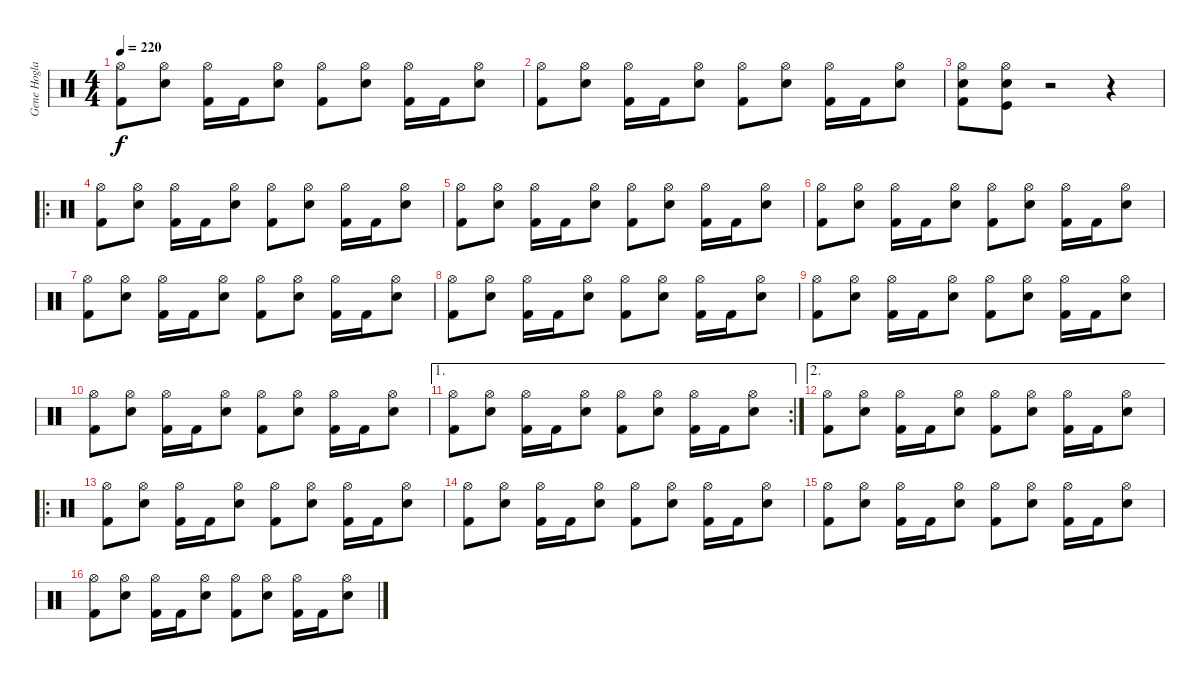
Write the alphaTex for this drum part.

\track ("Gene Hoglan" "Gene Hogla") {instrument percussion}
\staff {score}
\articulation defaults
\ts (4 4)
\tempo 220
\clef neutral
\ks c
("Hi-Hat (open)" "Kick (hit) 2").8{dy f} ("Hi-Hat (open)" "Electric Snare (hit)").8 ("Hi-Hat (open)" "Kick (hit) 2").16 "Kick (hit) 2".16 ("Hi-Hat (open)" "Electric Snare (hit)").8 ("Hi-Hat (open)" "Kick (hit) 2").8 ("Hi-Hat (open)" "Electric Snare (hit)").8 ("Hi-Hat (open)" "Kick (hit) 2").16 "Kick (hit) 2".16 ("Hi-Hat (open)" "Electric Snare (hit)").8 |
("Hi-Hat (open)" "Kick (hit) 2").8 ("Hi-Hat (open)" "Electric Snare (hit)").8 ("Hi-Hat (open)" "Kick (hit) 2").16 "Kick (hit) 2".16 ("Hi-Hat (open)" "Electric Snare (hit)").8 ("Hi-Hat (open)" "Kick (hit) 2").8 ("Hi-Hat (open)" "Electric Snare (hit)").8 ("Hi-Hat (open)" "Kick (hit) 2").16 "Kick (hit) 2".16 ("Hi-Hat (open)" "Electric Snare (hit)").8 |
("Hi-Hat (open)" "Electric Snare (hit)" "Kick (hit) 2").8 ("Hi-Hat (open)" "Electric Snare (hit)" "Kick (hit)").8 r.2 r.4 |
\ro
("Hi-Hat (open)" "Kick (hit) 2").8 ("Hi-Hat (open)" "Electric Snare (hit)").8 ("Hi-Hat (open)" "Kick (hit) 2").16 "Kick (hit) 2".16 ("Hi-Hat (open)" "Electric Snare (hit)").8 ("Hi-Hat (open)" "Kick (hit) 2").8 ("Hi-Hat (open)" "Electric Snare (hit)").8 ("Hi-Hat (open)" "Kick (hit) 2").16 "Kick (hit) 2".16 ("Hi-Hat (open)" "Electric Snare (hit)").8 |
("Hi-Hat (open)" "Kick (hit) 2").8 ("Hi-Hat (open)" "Electric Snare (hit)").8 ("Hi-Hat (open)" "Kick (hit) 2").16 "Kick (hit) 2".16 ("Hi-Hat (open)" "Electric Snare (hit)").8 ("Hi-Hat (open)" "Kick (hit) 2").8 ("Hi-Hat (open)" "Electric Snare (hit)").8 ("Hi-Hat (open)" "Kick (hit) 2").16 "Kick (hit) 2".16 ("Hi-Hat (open)" "Electric Snare (hit)").8 |
("Hi-Hat (open)" "Kick (hit) 2").8 ("Hi-Hat (open)" "Electric Snare (hit)").8 ("Hi-Hat (open)" "Kick (hit) 2").16 "Kick (hit) 2".16 ("Hi-Hat (open)" "Electric Snare (hit)").8 ("Hi-Hat (open)" "Kick (hit) 2").8 ("Hi-Hat (open)" "Electric Snare (hit)").8 ("Hi-Hat (open)" "Kick (hit) 2").16 "Kick (hit) 2".16 ("Hi-Hat (open)" "Electric Snare (hit)").8 |
("Hi-Hat (open)" "Kick (hit) 2").8 ("Hi-Hat (open)" "Electric Snare (hit)").8 ("Hi-Hat (open)" "Kick (hit) 2").16 "Kick (hit) 2".16 ("Hi-Hat (open)" "Electric Snare (hit)").8 ("Hi-Hat (open)" "Kick (hit) 2").8 ("Hi-Hat (open)" "Electric Snare (hit)").8 ("Hi-Hat (open)" "Kick (hit) 2").16 "Kick (hit) 2".16 ("Hi-Hat (open)" "Electric Snare (hit)").8 |
("Hi-Hat (open)" "Kick (hit) 2").8 ("Hi-Hat (open)" "Electric Snare (hit)").8 ("Hi-Hat (open)" "Kick (hit) 2").16 "Kick (hit) 2".16 ("Hi-Hat (open)" "Electric Snare (hit)").8 ("Hi-Hat (open)" "Kick (hit) 2").8 ("Hi-Hat (open)" "Electric Snare (hit)").8 ("Hi-Hat (open)" "Kick (hit) 2").16 "Kick (hit) 2".16 ("Hi-Hat (open)" "Electric Snare (hit)").8 |
("Hi-Hat (open)" "Kick (hit) 2").8 ("Hi-Hat (open)" "Electric Snare (hit)").8 ("Hi-Hat (open)" "Kick (hit) 2").16 "Kick (hit) 2".16 ("Hi-Hat (open)" "Electric Snare (hit)").8 ("Hi-Hat (open)" "Kick (hit) 2").8 ("Hi-Hat (open)" "Electric Snare (hit)").8 ("Hi-Hat (open)" "Kick (hit) 2").16 "Kick (hit) 2".16 ("Hi-Hat (open)" "Electric Snare (hit)").8 |
("Hi-Hat (open)" "Kick (hit) 2").8 ("Hi-Hat (open)" "Electric Snare (hit)").8 ("Hi-Hat (open)" "Kick (hit) 2").16 "Kick (hit) 2".16 ("Hi-Hat (open)" "Electric Snare (hit)").8 ("Hi-Hat (open)" "Kick (hit) 2").8 ("Hi-Hat (open)" "Electric Snare (hit)").8 ("Hi-Hat (open)" "Kick (hit) 2").16 "Kick (hit) 2".16 ("Hi-Hat (open)" "Electric Snare (hit)").8 |
\ae 1
\rc 2
("Hi-Hat (open)" "Kick (hit) 2").8 ("Hi-Hat (open)" "Electric Snare (hit)").8 ("Hi-Hat (open)" "Kick (hit) 2").16 "Kick (hit) 2".16 ("Hi-Hat (open)" "Electric Snare (hit)").8 ("Hi-Hat (open)" "Kick (hit) 2").8 ("Hi-Hat (open)" "Electric Snare (hit)").8 ("Hi-Hat (open)" "Kick (hit) 2").16 "Kick (hit) 2".16 ("Hi-Hat (open)" "Electric Snare (hit)").8 |
\ae 2
("Hi-Hat (open)" "Kick (hit) 2").8 ("Hi-Hat (open)" "Electric Snare (hit)").8 ("Hi-Hat (open)" "Kick (hit) 2").16 "Kick (hit) 2".16 ("Hi-Hat (open)" "Electric Snare (hit)").8 ("Hi-Hat (open)" "Kick (hit) 2").8 ("Hi-Hat (open)" "Electric Snare (hit)").8 ("Hi-Hat (open)" "Kick (hit) 2").16 "Kick (hit) 2".16 ("Hi-Hat (open)" "Electric Snare (hit)").8 |
\ro
("Hi-Hat (open)" "Kick (hit) 2").8 ("Hi-Hat (open)" "Electric Snare (hit)").8 ("Hi-Hat (open)" "Kick (hit) 2").16 "Kick (hit) 2".16 ("Hi-Hat (open)" "Electric Snare (hit)").8 ("Hi-Hat (open)" "Kick (hit) 2").8 ("Hi-Hat (open)" "Electric Snare (hit)").8 ("Hi-Hat (open)" "Kick (hit) 2").16 "Kick (hit) 2".16 ("Hi-Hat (open)" "Electric Snare (hit)").8 |
("Hi-Hat (open)" "Kick (hit) 2").8 ("Hi-Hat (open)" "Electric Snare (hit)").8 ("Hi-Hat (open)" "Kick (hit) 2").16 "Kick (hit) 2".16 ("Hi-Hat (open)" "Electric Snare (hit)").8 ("Hi-Hat (open)" "Kick (hit) 2").8 ("Hi-Hat (open)" "Electric Snare (hit)").8 ("Hi-Hat (open)" "Kick (hit) 2").16 "Kick (hit) 2".16 ("Hi-Hat (open)" "Electric Snare (hit)").8 |
("Hi-Hat (open)" "Kick (hit) 2").8 ("Hi-Hat (open)" "Electric Snare (hit)").8 ("Hi-Hat (open)" "Kick (hit) 2").16 "Kick (hit) 2".16 ("Hi-Hat (open)" "Electric Snare (hit)").8 ("Hi-Hat (open)" "Kick (hit) 2").8 ("Hi-Hat (open)" "Electric Snare (hit)").8 ("Hi-Hat (open)" "Kick (hit) 2").16 "Kick (hit) 2".16 ("Hi-Hat (open)" "Electric Snare (hit)").8 |
("Hi-Hat (open)" "Kick (hit) 2").8 ("Hi-Hat (open)" "Electric Snare (hit)").8 ("Hi-Hat (open)" "Kick (hit) 2").16 "Kick (hit) 2".16 ("Hi-Hat (open)" "Electric Snare (hit)").8 ("Hi-Hat (open)" "Kick (hit) 2").8 ("Hi-Hat (open)" "Electric Snare (hit)").8 ("Hi-Hat (open)" "Kick (hit) 2").16 "Kick (hit) 2".16 ("Hi-Hat (open)" "Electric Snare (hit)").8
